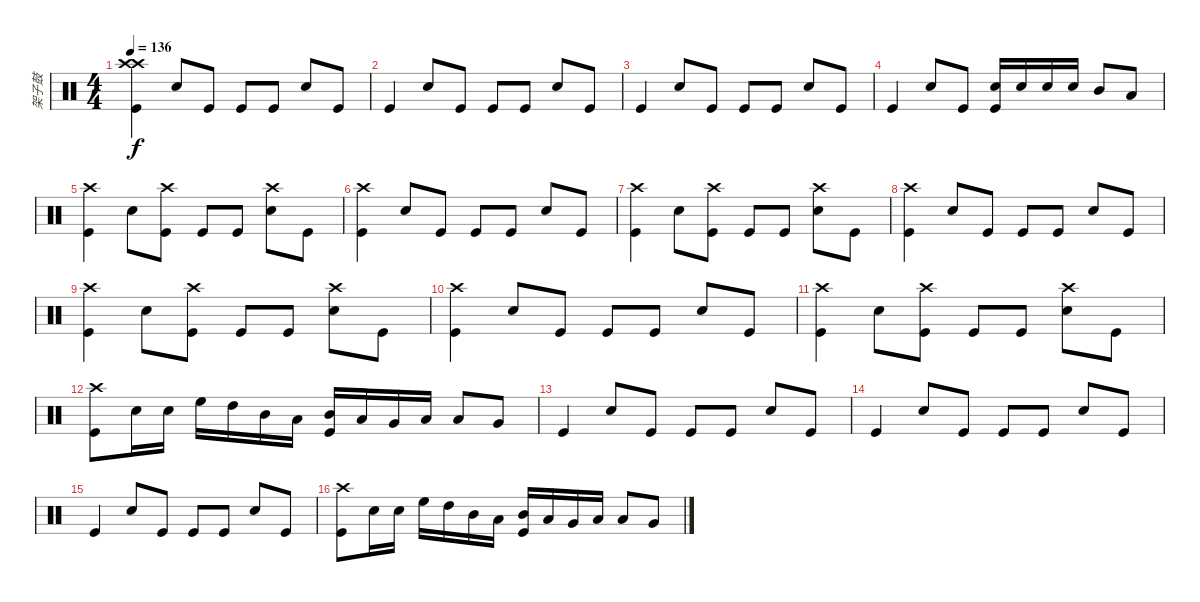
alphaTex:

\track ("架子鼓" "架子鼓") {instrument percussion}
\staff {score}
\articulation defaults
\ts (4 4)
\tempo 136
\clef neutral
\ks c
("Crash high (hit)" "Crash high (hit)" "Kick (hit)").4{dy f} "Snare (hit) 2".8 "Kick (hit)".8 "Kick (hit)".8 "Kick (hit)".8 "Snare (hit) 2".8 "Kick (hit)".8 |
"Kick (hit)".4 "Snare (hit) 2".8 "Kick (hit)".8 "Kick (hit)".8 "Kick (hit)".8 "Snare (hit) 2".8 "Kick (hit)".8 |
"Kick (hit)".4 "Snare (hit) 2".8 "Kick (hit)".8 "Kick (hit)".8 "Kick (hit)".8 "Snare (hit) 2".8 "Kick (hit)".8 |
"Kick (hit)".4 "Snare (hit) 2".8 "Kick (hit)".8 ("Snare (hit) 2" "Kick (hit)").16 "Snare (hit) 2".16 "Snare (hit) 2".16 "Snare (hit) 2".16 "Mid Tom (hit)".8 "Low Tom (hit)".8 |
("Crash high (hit)" "Kick (hit)").4 "Snare (hit) 2".8 ("Crash high (hit)" "Kick (hit)").8 "Kick (hit)".8 "Kick (hit)".8 ("Crash high (hit)" "Snare (hit) 2").8 "Kick (hit)".8 |
("Crash high (hit)" "Kick (hit)").4 "Snare (hit) 2".8 "Kick (hit)".8 "Kick (hit)".8 "Kick (hit)".8 "Snare (hit) 2".8 "Kick (hit)".8 |
("Crash high (hit)" "Kick (hit)").4 "Snare (hit) 2".8 ("Crash high (hit)" "Kick (hit)").8 "Kick (hit)".8 "Kick (hit)".8 ("Crash high (hit)" "Snare (hit) 2").8 "Kick (hit)".8 |
("Crash high (hit)" "Kick (hit)").4 "Snare (hit) 2".8 "Kick (hit)".8 "Kick (hit)".8 "Kick (hit)".8 "Snare (hit) 2".8 "Kick (hit)".8 |
("Crash high (hit)" "Kick (hit)").4 "Snare (hit) 2".8 ("Crash high (hit)" "Kick (hit)").8 "Kick (hit)".8 "Kick (hit)".8 ("Crash high (hit)" "Snare (hit) 2").8 "Kick (hit)".8 |
("Crash high (hit)" "Kick (hit)").4 "Snare (hit) 2".8 "Kick (hit)".8 "Kick (hit)".8 "Kick (hit)".8 "Snare (hit) 2".8 "Kick (hit)".8 |
("Crash high (hit)" "Kick (hit)").4 "Snare (hit) 2".8 ("Crash high (hit)" "Kick (hit)").8 "Kick (hit)".8 "Kick (hit)".8 ("Crash high (hit)" "Snare (hit) 2").8 "Kick (hit)".8 |
("Crash high (hit)" "Kick (hit)").8 "Snare (hit) 2".16 "Snare (hit) 2".16 "High Floor Tom (hit)".16 "High Tom (hit)".16 "Mid Tom (hit)".16 "Low Tom (hit)".16 ("Mid Tom (hit)" "Kick (hit)").16 "Low Tom (hit)".16 "Very Low Tom (hit)".16 "Low Floor Tom (hit)".16 "Low Tom (hit)".8 "Very Low Tom (hit)".8 |
"Kick (hit)".4 "Snare (hit) 2".8 "Kick (hit)".8 "Kick (hit)".8 "Kick (hit)".8 "Snare (hit) 2".8 "Kick (hit)".8 |
"Kick (hit)".4 "Snare (hit) 2".8 "Kick (hit)".8 "Kick (hit)".8 "Kick (hit)".8 "Snare (hit) 2".8 "Kick (hit)".8 |
"Kick (hit)".4 "Snare (hit) 2".8 "Kick (hit)".8 "Kick (hit)".8 "Kick (hit)".8 "Snare (hit) 2".8 "Kick (hit)".8 |
("Crash high (hit)" "Kick (hit)").8 "Snare (hit) 2".16 "Snare (hit) 2".16 "High Floor Tom (hit)".16 "High Tom (hit)".16 "Mid Tom (hit)".16 "Low Tom (hit)".16 ("Mid Tom (hit)" "Kick (hit)").16 "Low Tom (hit)".16 "Very Low Tom (hit)".16 "Low Floor Tom (hit)".16 "Low Tom (hit)".8 "Very Low Tom (hit)".8
